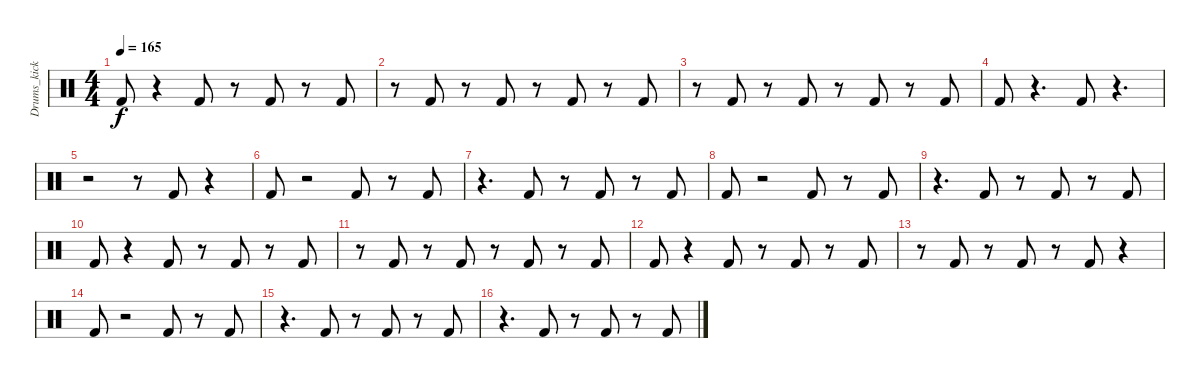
\track ("Drums_kick" "Drums_kick") {instrument percussion}
\staff {score}
\articulation defaults
\ts (4 4)
\tempo 165
\clef neutral
\ks c "Kick (hit) 2".8{dy f}
r.4 "Kick (hit) 2".8 r.8 "Kick (hit) 2".8 r.8 "Kick (hit) 2".8 |
r.8 "Kick (hit) 2".8 r.8 "Kick (hit) 2".8 r.8 "Kick (hit) 2".8 r.8 "Kick (hit) 2".8 |
r.8 "Kick (hit) 2".8 r.8 "Kick (hit) 2".8 r.8 "Kick (hit) 2".8 r.8 "Kick (hit) 2".8 |
"Kick (hit) 2".8 r.4{d} "Kick (hit) 2".8 r.4{d} |
r.2 r.8 "Kick (hit) 2".8 r.4 |
"Kick (hit) 2".8 r.2 "Kick (hit) 2".8 r.8 "Kick (hit) 2".8 |
r.4{d} "Kick (hit) 2".8 r.8 "Kick (hit) 2".8 r.8 "Kick (hit) 2".8 |
"Kick (hit) 2".8 r.2 "Kick (hit) 2".8 r.8 "Kick (hit) 2".8 |
r.4{d} "Kick (hit) 2".8 r.8 "Kick (hit) 2".8 r.8 "Kick (hit) 2".8 |
"Kick (hit) 2".8 r.4 "Kick (hit) 2".8 r.8 "Kick (hit) 2".8 r.8 "Kick (hit) 2".8 |
r.8 "Kick (hit) 2".8 r.8 "Kick (hit) 2".8 r.8 "Kick (hit) 2".8 r.8 "Kick (hit) 2".8 |
"Kick (hit) 2".8 r.4 "Kick (hit) 2".8 r.8 "Kick (hit) 2".8 r.8 "Kick (hit) 2".8 |
r.8 "Kick (hit) 2".8 r.8 "Kick (hit) 2".8 r.8 "Kick (hit) 2".8 r.4 |
"Kick (hit) 2".8 r.2 "Kick (hit) 2".8 r.8 "Kick (hit) 2".8 |
r.4{d} "Kick (hit) 2".8 r.8 "Kick (hit) 2".8 r.8 "Kick (hit) 2".8 |
r.4{d} "Kick (hit) 2".8 r.8 "Kick (hit) 2".8 r.8 "Kick (hit) 2".8
